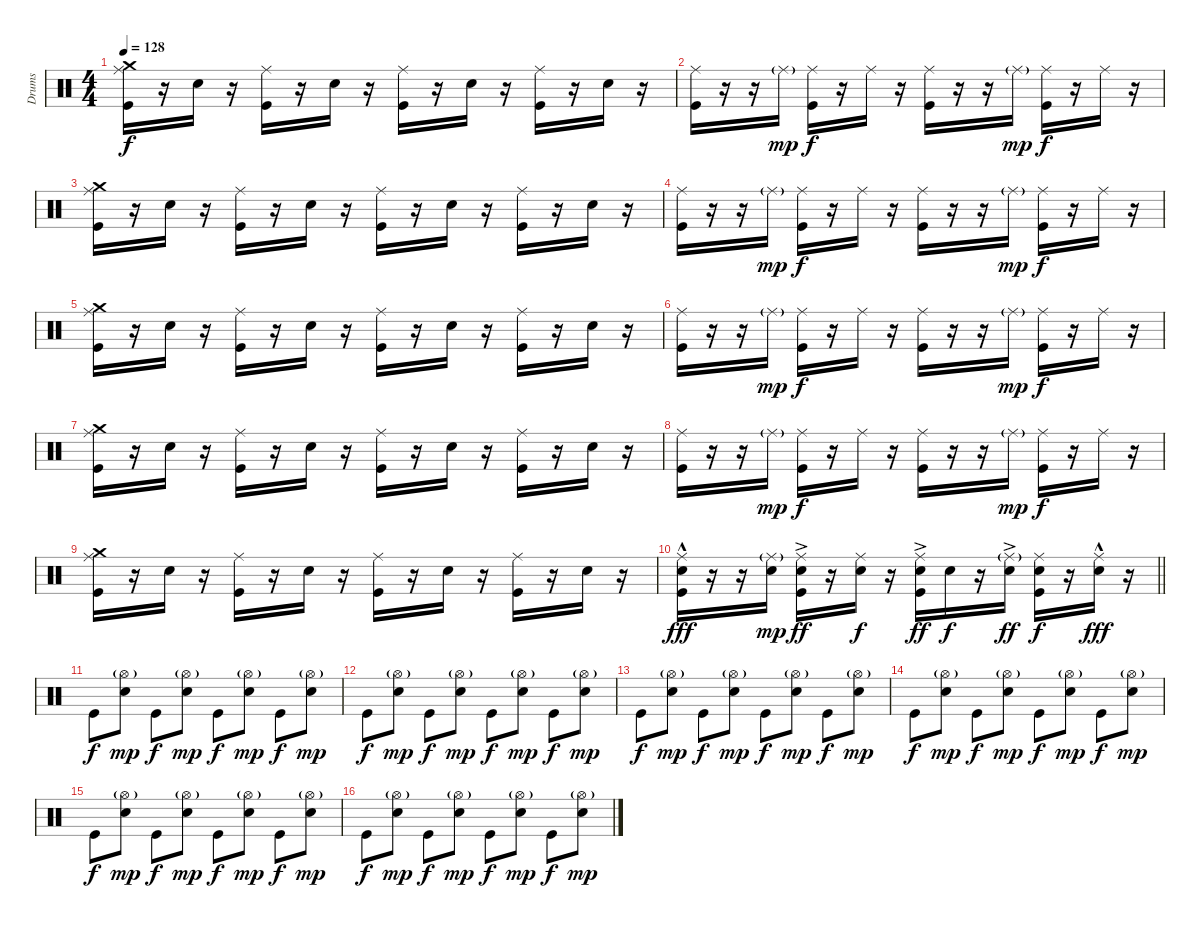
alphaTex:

\track ("Drums" "Drums") {instrument percussion}
\staff {score}
\articulation defaults
\ts (4 4)
\tempo 128
\clef neutral
\ks c
("Ride (middle)" "Crash medium (hit)" "Kick (hit)").16{dy f} r.16 "Electric Snare (hit)".16 r.16 ("Ride (middle)" "Kick (hit)").16 r.16 "Electric Snare (hit)".16 r.16 ("Ride (middle)" "Kick (hit)").16 r.16 "Electric Snare (hit)".16 r.16 ("Ride (middle)" "Kick (hit)").16 r.16 "Electric Snare (hit)".16 r.16 |
("Ride (middle)" "Kick (hit)").16 r.16 r.16 "Ride (middle)"{g}.16{dy mp} ("Ride (middle)" "Kick (hit)").16{dy f} r.16 "Ride (middle)".16 r.16 ("Ride (middle)" "Kick (hit)").16 r.16 r.16 "Ride (middle)"{g}.16{dy mp} ("Ride (middle)" "Kick (hit)").16{dy f} r.16 "Ride (middle)".16 r.16 |
("Ride (middle)" "Crash medium (hit)" "Kick (hit)").16 r.16 "Electric Snare (hit)".16 r.16 ("Ride (middle)" "Kick (hit)").16 r.16 "Electric Snare (hit)".16 r.16 ("Ride (middle)" "Kick (hit)").16 r.16 "Electric Snare (hit)".16 r.16 ("Ride (middle)" "Kick (hit)").16 r.16 "Electric Snare (hit)".16 r.16 |
("Ride (middle)" "Kick (hit)").16 r.16 r.16 "Ride (middle)"{g}.16{dy mp} ("Ride (middle)" "Kick (hit)").16{dy f} r.16 "Ride (middle)".16 r.16 ("Ride (middle)" "Kick (hit)").16 r.16 r.16 "Ride (middle)"{g}.16{dy mp} ("Ride (middle)" "Kick (hit)").16{dy f} r.16 "Ride (middle)".16 r.16 |
("Ride (middle)" "Crash medium (hit)" "Kick (hit)").16 r.16 "Electric Snare (hit)".16 r.16 ("Ride (middle)" "Kick (hit)").16 r.16 "Electric Snare (hit)".16 r.16 ("Ride (middle)" "Kick (hit)").16 r.16 "Electric Snare (hit)".16 r.16 ("Ride (middle)" "Kick (hit)").16 r.16 "Electric Snare (hit)".16 r.16 |
("Ride (middle)" "Kick (hit)").16 r.16 r.16 "Ride (middle)"{g}.16{dy mp} ("Ride (middle)" "Kick (hit)").16{dy f} r.16 "Ride (middle)".16 r.16 ("Ride (middle)" "Kick (hit)").16 r.16 r.16 "Ride (middle)"{g}.16{dy mp} ("Ride (middle)" "Kick (hit)").16{dy f} r.16 "Ride (middle)".16 r.16 |
("Ride (middle)" "Crash medium (hit)" "Kick (hit)").16 r.16 "Electric Snare (hit)".16 r.16 ("Ride (middle)" "Kick (hit)").16 r.16 "Electric Snare (hit)".16 r.16 ("Ride (middle)" "Kick (hit)").16 r.16 "Electric Snare (hit)".16 r.16 ("Ride (middle)" "Kick (hit)").16 r.16 "Electric Snare (hit)".16 r.16 |
("Ride (middle)" "Kick (hit)").16 r.16 r.16 "Ride (middle)"{g}.16{dy mp} ("Ride (middle)" "Kick (hit)").16{dy f} r.16 "Ride (middle)".16 r.16 ("Ride (middle)" "Kick (hit)").16 r.16 r.16 "Ride (middle)"{g}.16{dy mp} ("Ride (middle)" "Kick (hit)").16{dy f} r.16 "Ride (middle)".16 r.16 |
("Ride (middle)" "Crash medium (hit)" "Kick (hit)").16 r.16 "Electric Snare (hit)".16 r.16 ("Ride (middle)" "Kick (hit)").16 r.16 "Electric Snare (hit)".16 r.16 ("Ride (middle)" "Kick (hit)").16 r.16 "Electric Snare (hit)".16 r.16 ("Ride (middle)" "Kick (hit)").16 r.16 "Electric Snare (hit)".16 r.16 |
\barLineRight lightlight
("Ride (middle)" "Electric Snare (hit)"{hac} "Kick (hit)").16{dy fff} r.16 r.16 ("Ride (middle)"{g} "Electric Snare (hit)").16{dy mp} ("Ride (middle)" "Electric Snare (hit)"{ac} "Kick (hit)").16{dy ff} r.16 ("Ride (middle)" "Electric Snare (hit)").16{dy f} r.16 ("Ride (middle)" "Electric Snare (hit)"{ac} "Kick (hit)").16{dy ff} "Electric Snare (hit)".16{dy f} r.16 ("Ride (middle)"{g} "Electric Snare (hit)"{ac}).16{dy ff} ("Ride (middle)" "Electric Snare (hit)" "Kick (hit)").16{dy f} r.16 ("Ride (middle)" "Electric Snare (hit)"{hac}).16{dy fff} r.16 |
"Kick (hit)".8{dy f} ("Hi-Hat (open)"{g} "Electric Snare (hit)").8{dy mp} "Kick (hit)".8{dy f} ("Hi-Hat (open)"{g} "Electric Snare (hit)").8{dy mp} "Kick (hit)".8{dy f} ("Hi-Hat (open)"{g} "Electric Snare (hit)").8{dy mp} "Kick (hit)".8{dy f} ("Hi-Hat (open)"{g} "Electric Snare (hit)").8{dy mp} |
"Kick (hit)".8{dy f} ("Hi-Hat (open)"{g} "Electric Snare (hit)").8{dy mp} "Kick (hit)".8{dy f} ("Hi-Hat (open)"{g} "Electric Snare (hit)").8{dy mp} "Kick (hit)".8{dy f} ("Hi-Hat (open)"{g} "Electric Snare (hit)").8{dy mp} "Kick (hit)".8{dy f} ("Hi-Hat (open)"{g} "Electric Snare (hit)").8{dy mp} |
"Kick (hit)".8{dy f} ("Hi-Hat (open)"{g} "Electric Snare (hit)").8{dy mp} "Kick (hit)".8{dy f} ("Hi-Hat (open)"{g} "Electric Snare (hit)").8{dy mp} "Kick (hit)".8{dy f} ("Hi-Hat (open)"{g} "Electric Snare (hit)").8{dy mp} "Kick (hit)".8{dy f} ("Hi-Hat (open)"{g} "Electric Snare (hit)").8{dy mp} |
"Kick (hit)".8{dy f} ("Hi-Hat (open)"{g} "Electric Snare (hit)").8{dy mp} "Kick (hit)".8{dy f} ("Hi-Hat (open)"{g} "Electric Snare (hit)").8{dy mp} "Kick (hit)".8{dy f} ("Hi-Hat (open)"{g} "Electric Snare (hit)").8{dy mp} "Kick (hit)".8{dy f} ("Hi-Hat (open)"{g} "Electric Snare (hit)").8{dy mp} |
"Kick (hit)".8{dy f} ("Hi-Hat (open)"{g} "Electric Snare (hit)").8{dy mp} "Kick (hit)".8{dy f} ("Hi-Hat (open)"{g} "Electric Snare (hit)").8{dy mp} "Kick (hit)".8{dy f} ("Hi-Hat (open)"{g} "Electric Snare (hit)").8{dy mp} "Kick (hit)".8{dy f} ("Hi-Hat (open)"{g} "Electric Snare (hit)").8{dy mp} |
"Kick (hit)".8{dy f} ("Hi-Hat (open)"{g} "Electric Snare (hit)").8{dy mp} "Kick (hit)".8{dy f} ("Hi-Hat (open)"{g} "Electric Snare (hit)").8{dy mp} "Kick (hit)".8{dy f} ("Hi-Hat (open)"{g} "Electric Snare (hit)").8{dy mp} "Kick (hit)".8{dy f} ("Hi-Hat (open)"{g} "Electric Snare (hit)").8{dy mp}
